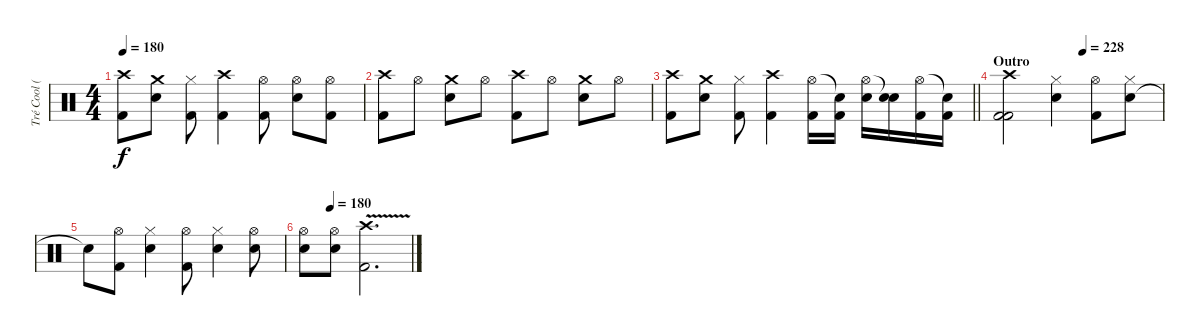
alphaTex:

\track ("Tré Cool (Drums)" "Tré Cool (") {instrument percussion}
\staff {score}
\articulation defaults
\ts (4 4)
\tempo 180
\clef neutral
\ks c
("Kick (hit) 2" "Crash high (hit)").8{dy f} ("Snare (hit) 2" "Crash medium (hit)").8 ("Kick (hit) 2" "Hi-Hat (closed)").8 ("Kick (hit) 2" "Crash high (hit)").4 ("Kick (hit) 2" "Hi-Hat (open)").8 ("Snare (hit) 2" "Hi-Hat (open)").8 ("Kick (hit) 2" "Hi-Hat (open)").8 |
("Kick (hit) 2" "Crash high (hit)").8 "Hi-Hat (open)".8 ("Snare (hit) 2" "Crash medium (hit)").8 "Hi-Hat (open)".8 ("Kick (hit) 2" "Crash high (hit)").8 "Hi-Hat (open)".8 ("Snare (hit) 2" "Crash medium (hit)").8 "Hi-Hat (open)".8 |
\barLineRight lightlight
("Kick (hit) 2" "Crash high (hit)").8 ("Snare (hit) 2" "Crash medium (hit)").8 ("Kick (hit) 2" "Hi-Hat (closed)").8 ("Kick (hit) 2" "Crash high (hit)").4 ("Kick (hit) 2" "Hi-Hat (open)").16 ("Kick (hit) 2" "Snare (hit)"{t}).16 ("Snare (hit) 2" "Hi-Hat (open)").16 ("Snare (hit) 2" "Snare (hit)"{t}).16 ("Kick (hit) 2" "Hi-Hat (open)").16 ("Kick (hit) 2" "Snare (hit)"{t}).16 |
\section ("" "Outro")
\tempo (228 0.5)
("Kick (hit) 2" "Kick (hit) 2" "Crash high (hit)").2 ("Snare (hit) 2" "Hi-Hat (closed)").4 ("Kick (hit) 2" "Hi-Hat (open)").8 ("Snare (hit) 2" "Hi-Hat (closed)").8 |
"Snare (hit)"{t}.8 ("Kick (hit) 2" "Hi-Hat (open)").8 ("Snare (hit) 2" "Hi-Hat (closed)").4 ("Kick (hit) 2" "Hi-Hat (open)").8 ("Snare (hit) 2" "Hi-Hat (closed)").4 ("Snare (hit) 2" "Hi-Hat (open)").8 |
\tempo (180 0.25)
("Snare (hit) 2" "Hi-Hat (open)").8 ("Snare (hit) 2" "Hi-Hat (open)").8 ("Kick (hit) 2" "Crash high (hit)"{v}).2{d}
